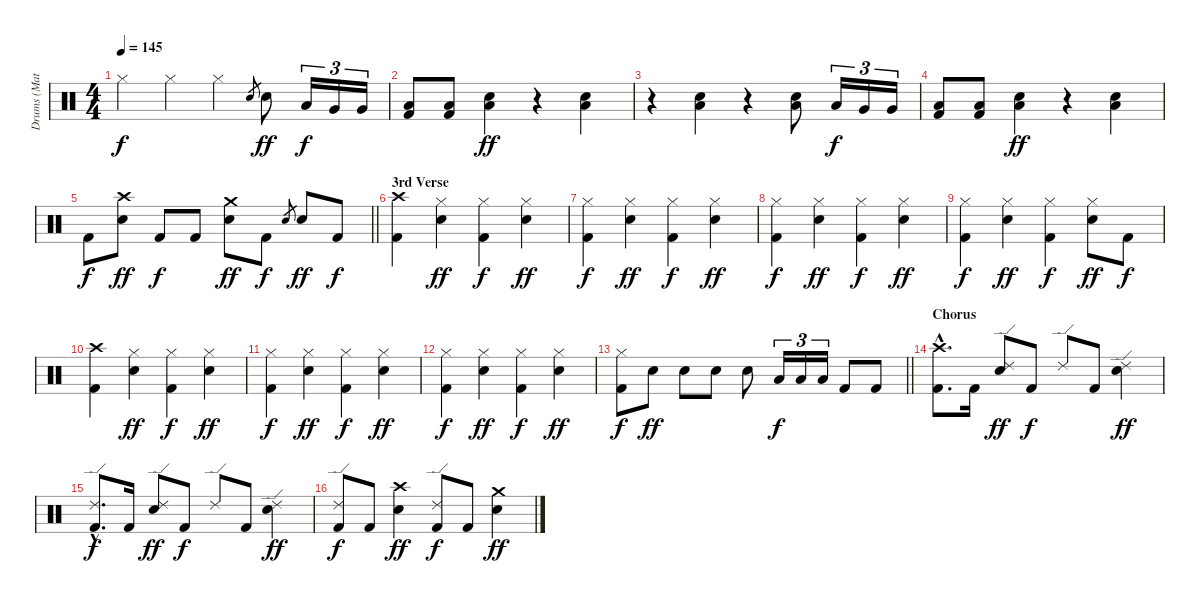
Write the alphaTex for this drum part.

\track ("Drums (Matt)" "Drums (Mat") {instrument percussion}
\staff {score}
\articulation defaults
\ts (4 4)
\tempo 145
\clef neutral
\ks c "Hi-Hat (closed)".4{dy f} "Hi-Hat (closed)".4 "Hi-Hat (closed)".4 "Snare (hit) 2".8{gr} "Snare (hit) 2".8{dy ff} "Low Tom (hit)".16{tu (3 2) dy f} "Very Low Tom (hit)".16{tu (3 2)} "Very Low Tom (hit)".16{tu (3 2)}
|
("Low Floor Tom (hit)" "Kick (hit) 2").8 ("Low Floor Tom (hit)" "Kick (hit) 2").8 ("Low Floor Tom (hit)" "Snare (hit) 2").4{dy ff} r.4 ("Low Floor Tom (hit)" "Snare (hit) 2").4 |
r.4 ("Low Floor Tom (hit)" "Snare (hit) 2").4 r.4 ("Low Floor Tom (hit)" "Snare (hit) 2").8 "Low Tom (hit)".16{tu (3 2) dy f} "Very Low Tom (hit)".16{tu (3 2)} "Very Low Tom (hit)".16{tu (3 2)} |
("Low Floor Tom (hit)" "Kick (hit) 2").8 ("Low Floor Tom (hit)" "Kick (hit) 2").8 ("Low Floor Tom (hit)" "Snare (hit) 2").4{dy ff} r.4 ("Low Floor Tom (hit)" "Snare (hit) 2").4 |
\barLineRight lightlight "Kick (hit) 2".8{dy f}
("Crash high (hit)" "Snare (hit) 2").8{dy ff} "Kick (hit) 2".8{dy f} "Kick (hit) 2".8 ("Crash medium (hit)" "Snare (hit) 2").8{dy ff} "Kick (hit) 2".8{dy f} "Snare (hit) 2".8{gr} "Snare (hit) 2".8{dy ff} "Kick (hit) 2".8{dy f} |
\section ("" "3rd Verse")
("Crash high (hit)" "Kick (hit) 2").4 ("Hi-Hat (closed)" "Snare (hit) 2").4{dy ff} ("Hi-Hat (closed)" "Kick (hit) 2").4{dy f} ("Hi-Hat (closed)" "Snare (hit) 2").4{dy ff} |
("Hi-Hat (closed)" "Kick (hit) 2").4{dy f} ("Hi-Hat (closed)" "Snare (hit) 2").4{dy ff} ("Hi-Hat (closed)" "Kick (hit) 2").4{dy f} ("Hi-Hat (closed)" "Snare (hit) 2").4{dy ff} |
("Hi-Hat (closed)" "Kick (hit) 2").4{dy f} ("Hi-Hat (closed)" "Snare (hit) 2").4{dy ff} ("Hi-Hat (closed)" "Kick (hit) 2").4{dy f} ("Hi-Hat (closed)" "Snare (hit) 2").4{dy ff} |
("Hi-Hat (closed)" "Kick (hit) 2").4{dy f} ("Hi-Hat (closed)" "Snare (hit) 2").4{dy ff} ("Hi-Hat (closed)" "Kick (hit) 2").4{dy f} ("Hi-Hat (closed)" "Snare (hit) 2").8{dy ff} "Kick (hit) 2".8{dy f} |
("Crash high (hit)" "Kick (hit) 2").4 ("Hi-Hat (closed)" "Snare (hit) 2").4{dy ff} ("Hi-Hat (closed)" "Kick (hit) 2").4{dy f} ("Hi-Hat (closed)" "Snare (hit) 2").4{dy ff} |
("Hi-Hat (closed)" "Kick (hit) 2").4{dy f} ("Hi-Hat (closed)" "Snare (hit) 2").4{dy ff} ("Hi-Hat (closed)" "Kick (hit) 2").4{dy f} ("Hi-Hat (closed)" "Snare (hit) 2").4{dy ff} |
("Hi-Hat (closed)" "Kick (hit) 2").4{dy f} ("Hi-Hat (closed)" "Snare (hit) 2").4{dy ff} ("Hi-Hat (closed)" "Kick (hit) 2").4{dy f} ("Hi-Hat (closed)" "Snare (hit) 2").4{dy ff} |
\barLineRight lightlight
("Hi-Hat (closed)" "Kick (hit) 2").8{dy f} "Snare (hit) 2".8{dy ff} "Snare (hit) 2".8 "Snare (hit) 2".8 "Snare (hit) 2".8 "Low Tom (hit)".16{tu (3 2) dy f} "Low Tom (hit)".16{tu (3 2)} "Low Tom (hit)".16{tu (3 2)} "Kick (hit) 2".8 "Kick (hit) 2".8 |
\section ("" "Chorus")
("Crash high (hit)"{hac} "Kick (hit) 2"{hac}).8{d} "Kick (hit) 2".16 ("Ride (edge) 2" "Snare (hit) 2").8{dy ff} "Kick (hit) 2".8{dy f} "Ride (edge) 2".8 "Kick (hit) 2".8 ("Ride (edge) 2" "Snare (hit) 2").4{dy ff} |
("Ride (edge) 2"{hac} "Kick (hit) 2"{hac}).8{d dy f} "Kick (hit) 2".16 ("Ride (edge) 2" "Snare (hit) 2").8{dy ff} "Kick (hit) 2".8{dy f} "Ride (edge) 2".8 "Kick (hit) 2".8 ("Ride (edge) 2" "Snare (hit) 2").4{dy ff} |
("Ride (edge) 2" "Kick (hit) 2").8{dy f} "Kick (hit) 2".8 ("Crash high (hit)" "Snare (hit) 2").4{dy ff} ("Ride (edge) 2" "Kick (hit) 2").8{dy f} "Kick (hit) 2".8 ("Crash medium (hit)" "Snare (hit) 2").4{dy ff}
